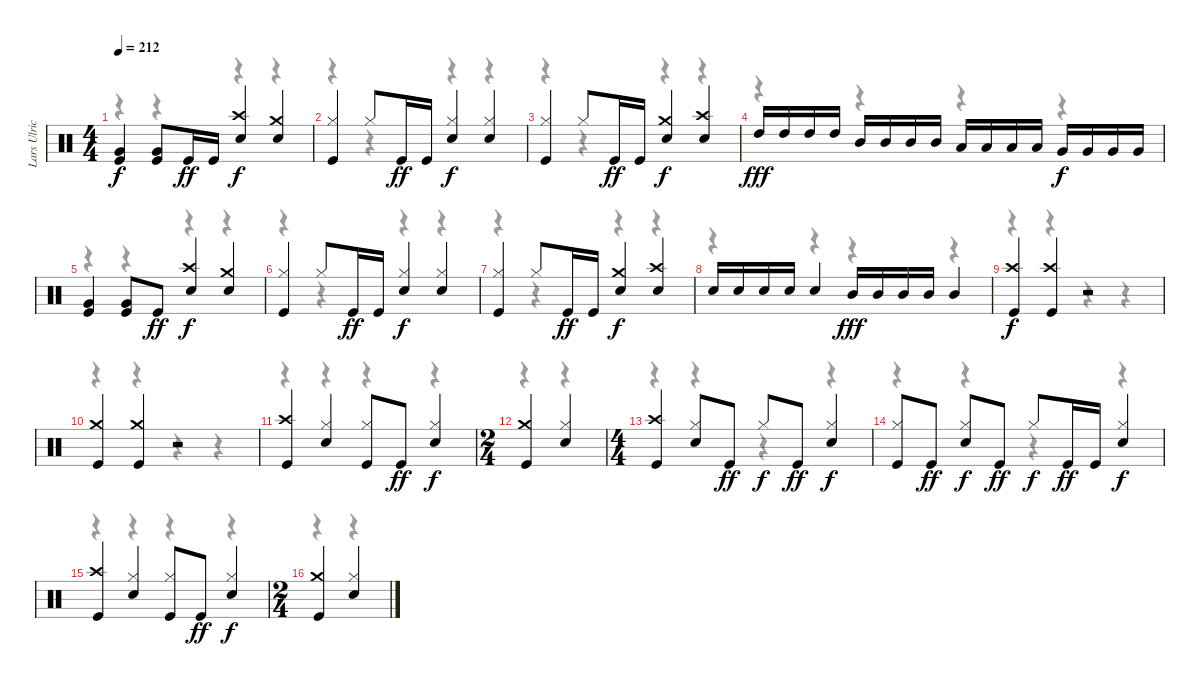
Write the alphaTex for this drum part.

\track ("Lars Ulrich" "Lars Ulric") {instrument percussion}
\staff {score}
\articulation defaults
\voice
\ts (4 4)
\tempo 212
\clef neutral
\ks c
("Very Low Tom (hit)" "Kick (hit)").4{dy f} ("Very Low Tom (hit)" "Kick (hit)").8 "Kick (hit)".16{dy ff} "Kick (hit)".16 ("Crash high (hit)" "Snare (hit) 2").4{dy f} ("Crash medium (hit)" "Snare (hit) 2").4 |
("Hi-Hat (closed)" "Kick (hit)").4 "Hi-Hat (closed)".8 "Kick (hit)".16{dy ff} "Kick (hit)".16 ("Hi-Hat (closed)" "Snare (hit) 2").4{dy f} ("Hi-Hat (closed)" "Snare (hit) 2").4 |
("Hi-Hat (closed)" "Kick (hit)").4 "Hi-Hat (closed)".8 "Kick (hit)".16{dy ff} "Kick (hit)".16 ("Crash medium (hit)" "Snare (hit) 2").4{dy f} ("Crash high (hit)" "Snare (hit) 2").4 |
"High Tom (hit)".16{dy fff} "High Tom (hit)".16 "High Tom (hit)".16 "High Tom (hit)".16 "Mid Tom (hit)".16 "Mid Tom (hit)".16 "Mid Tom (hit)".16 "Mid Tom (hit)".16 "Low Tom (hit)".16 "Low Tom (hit)".16 "Low Tom (hit)".16 "Low Tom (hit)".16 "Very Low Tom (hit)".16{dy f} "Very Low Tom (hit)".16 "Very Low Tom (hit)".16 "Very Low Tom (hit)".16 |
("Very Low Tom (hit)" "Kick (hit)").4 ("Very Low Tom (hit)" "Kick (hit)").8 "Kick (hit)".8{dy ff} ("Crash high (hit)" "Snare (hit) 2").4{dy f} ("Crash medium (hit)" "Snare (hit) 2").4 |
("Hi-Hat (closed)" "Kick (hit)").4 "Hi-Hat (closed)".8 "Kick (hit)".16{dy ff} "Kick (hit)".16 ("Hi-Hat (closed)" "Snare (hit) 2").4{dy f} ("Hi-Hat (closed)" "Snare (hit) 2").4 |
("Hi-Hat (closed)" "Kick (hit)").4 "Hi-Hat (closed)".8 "Kick (hit)".16{dy ff} "Kick (hit)".16 ("Crash medium (hit)" "Snare (hit) 2").4{dy f} ("Crash high (hit)" "Snare (hit) 2").4 |
"Snare (hit) 2".16 "Snare (hit) 2".16 "Snare (hit) 2".16 "Snare (hit) 2".16 "Snare (hit) 2".4 "Mid Tom (hit)".16{dy fff} "Mid Tom (hit)".16 "Mid Tom (hit)".16 "Mid Tom (hit)".16 "Mid Tom (hit)".4 |
("Crash high (hit)" "Kick (hit)").4{dy f} ("Crash high (hit)" "Kick (hit)").4 r.2 |
("Crash medium (hit)" "Kick (hit)").4 ("Crash medium (hit)" "Kick (hit)").4 r.2 |
("Crash high (hit)" "Kick (hit)").4 ("Hi-Hat (closed)" "Snare (hit) 2").4 ("Hi-Hat (closed)" "Kick (hit)").8 "Kick (hit)".8{dy ff} ("Hi-Hat (closed)" "Snare (hit) 2").4{dy f} |
\ts (2 4)
("Crash medium (hit)" "Kick (hit)").4 ("Hi-Hat (closed)" "Snare (hit) 2").4 |
\ts (4 4)
("Crash high (hit)" "Kick (hit)").4 ("Hi-Hat (closed)" "Snare (hit) 2").8 "Kick (hit)".8{dy ff} "Hi-Hat (closed)".8{dy f} "Kick (hit)".8{dy ff} ("Hi-Hat (closed)" "Snare (hit) 2").4{dy f} |
("Hi-Hat (closed)" "Kick (hit)").8 "Kick (hit)".8{dy ff} ("Hi-Hat (closed)" "Snare (hit) 2").8{dy f} "Kick (hit)".8{dy ff} "Hi-Hat (closed)".8{dy f} "Kick (hit)".16{dy ff} "Kick (hit)".16 ("Hi-Hat (closed)" "Snare (hit) 2").4{dy f} |
("Crash high (hit)" "Kick (hit)").4 ("Hi-Hat (closed)" "Snare (hit) 2").4 ("Hi-Hat (closed)" "Kick (hit)").8 "Kick (hit)".8{dy ff} ("Hi-Hat (closed)" "Snare (hit) 2").4{dy f} |
\ts (2 4)
("Crash medium (hit)" "Kick (hit)").4 ("Hi-Hat (closed)" "Snare (hit) 2").4
\voice
\clef neutral
\ottava regular
\simile none
\ks c
r.4{dy f} r.4 r.4 r.4 |
r.4 r.4 r.4 r.4 |
r.4 r.4 r.4 r.4 |
r.4 r.4 r.4 r.4 |
r.4 r.4 r.4 r.4 |
r.4 r.4 r.4 r.4 |
r.4 r.4 r.4 r.4 |
r.4 r.4 r.4 r.4 |
r.4 r.4 r.4 r.4 |
r.4 r.4 r.4 r.4 |
r.4 r.4 r.4 r.4 |
r.4 r.4 |
r.4 r.4 r.4 r.4 |
r.4 r.4 r.4 r.4 |
r.4 r.4 r.4 r.4 |
r.4 r.4
